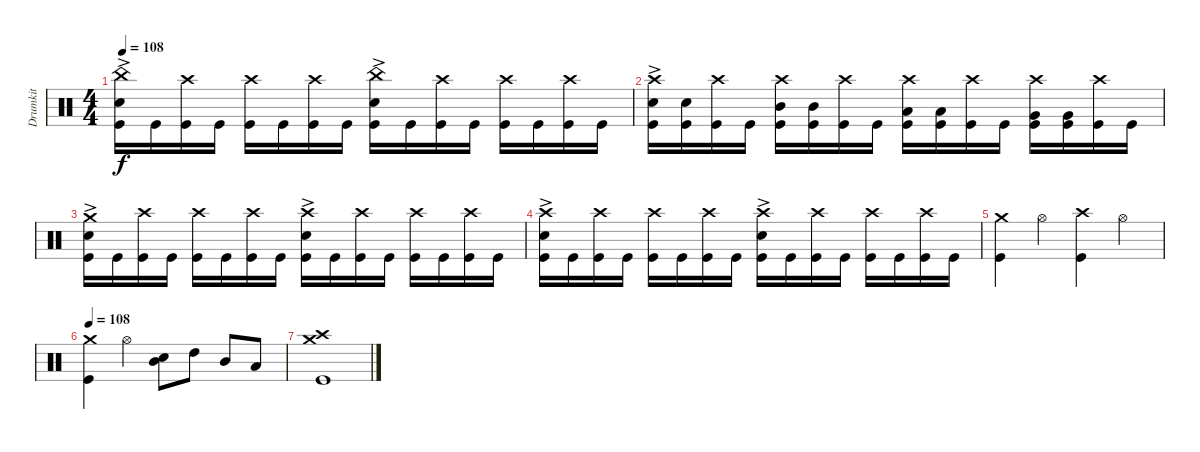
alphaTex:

\track ("Drumkit" "Drumkit") {instrument percussion}
\staff {score}
\articulation defaults
\ts (4 4)
\tempo 108
\clef neutral
\ks c
("Kick (hit)" "Snare (hit) 2"{ac} "China (hit)").16{dy f} "Kick (hit)".16 ("Kick (hit)" "Crash high (hit)").16 "Kick (hit)".16 ("Kick (hit)" "Crash high (hit)").16 "Kick (hit)".16 ("Kick (hit)" "Crash high (hit)").16 "Kick (hit)".16 ("Kick (hit)" "Snare (hit) 2"{ac} "China (hit)").16 "Kick (hit)".16 ("Kick (hit)" "Crash high (hit)").16 "Kick (hit)".16 ("Kick (hit)" "Crash high (hit)").16 "Kick (hit)".16 ("Kick (hit)" "Crash high (hit)").16 "Kick (hit)".16 |
("Kick (hit)" "Snare (hit) 2"{ac} "Crash high (hit)").16 ("Kick (hit)" "Snare (hit) 2").16 ("Kick (hit)" "Crash high (hit)").16 "Kick (hit)".16 ("Kick (hit)" "Crash high (hit)" "Mid Tom (hit)").16 ("Kick (hit)" "Mid Tom (hit)").16 ("Kick (hit)" "Crash high (hit)").16 "Kick (hit)".16 ("Kick (hit)" "Crash high (hit)" "Low Tom (hit)").16 ("Kick (hit)" "Low Tom (hit)").16 ("Kick (hit)" "Crash high (hit)").16 "Kick (hit)".16 ("Kick (hit)" "Crash high (hit)" "Very Low Tom (hit)").16 ("Kick (hit)" "Very Low Tom (hit)").16 ("Kick (hit)" "Crash high (hit)").16 "Kick (hit)".16 |
("Kick (hit)" "Snare (hit) 2"{ac} "Crash medium (hit)").16 "Kick (hit)".16 ("Kick (hit)" "Crash high (hit)").16 "Kick (hit)".16 ("Kick (hit)" "Crash high (hit)").16 "Kick (hit)".16 ("Kick (hit)" "Crash high (hit)").16 "Kick (hit)".16 ("Kick (hit)" "Snare (hit) 2"{ac} "Crash high (hit)").16 "Kick (hit)".16 ("Kick (hit)" "Crash high (hit)").16 "Kick (hit)".16 ("Kick (hit)" "Crash high (hit)").16 "Kick (hit)".16 ("Kick (hit)" "Crash high (hit)").16 "Kick (hit)".16 |
("Kick (hit)" "Snare (hit) 2"{ac} "Crash high (hit)").16 "Kick (hit)".16 ("Kick (hit)" "Crash high (hit)").16 "Kick (hit)".16 ("Kick (hit)" "Crash high (hit)").16 "Kick (hit)".16 ("Kick (hit)" "Crash high (hit)").16 "Kick (hit)".16 ("Kick (hit)" "Snare (hit) 2"{ac} "Crash high (hit)").16 "Kick (hit)".16 ("Kick (hit)" "Crash high (hit)").16 "Kick (hit)".16 ("Kick (hit)" "Crash high (hit)").16 "Kick (hit)".16 ("Kick (hit)" "Crash high (hit)").16 "Kick (hit)".16 |
("Kick (hit)" "Crash medium (hit)").4 "Hi-Hat (open)".4 ("Kick (hit)" "Crash high (hit)").4 "Hi-Hat (open)".4 |
\tempo 108
("Kick (hit)" "Crash medium (hit)").4 "Hi-Hat (open)".4 ("Snare (hit) 2" "Mid Tom (hit)").8 "High Tom (hit)".8 "Mid Tom (hit)".8 "Low Tom (hit)".8 |
("Kick (hit)" "Crash medium (hit)" "Crash high (hit)").1
